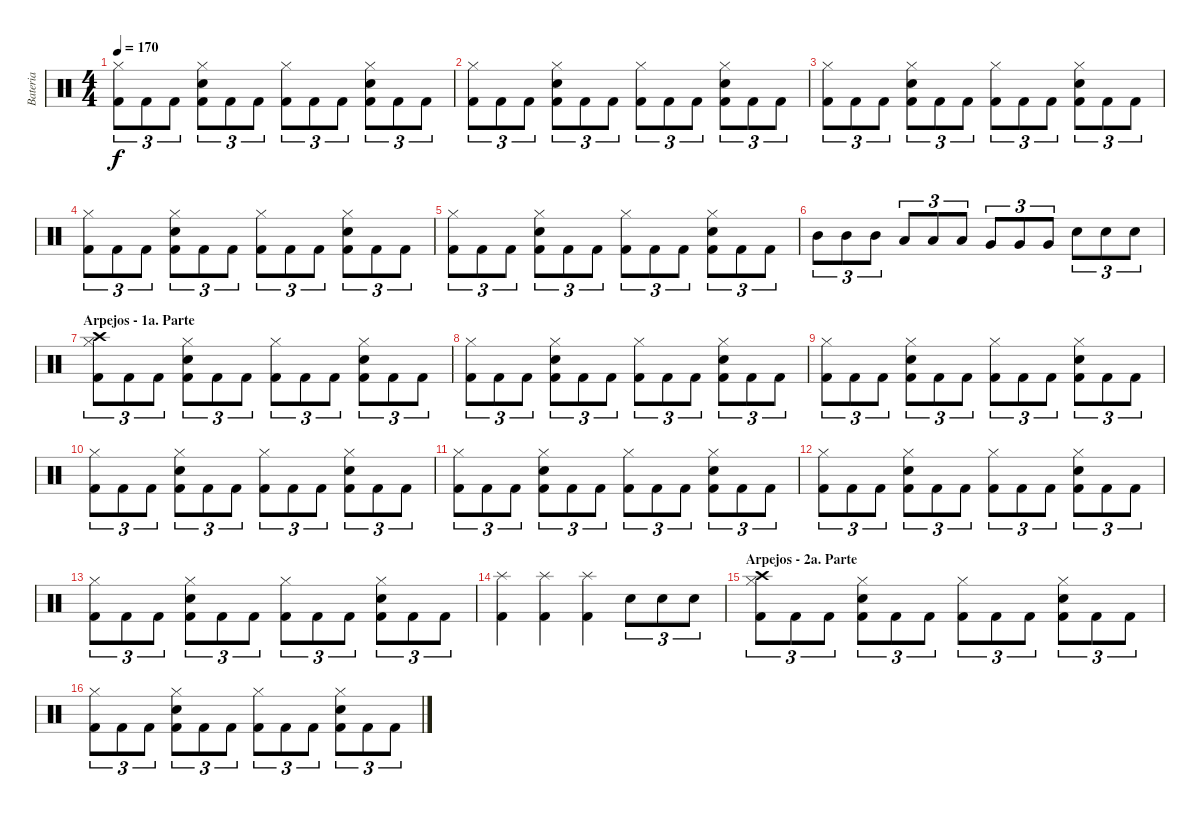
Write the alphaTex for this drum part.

\track ("Bateria" "Bateria") {instrument percussion}
\staff {score}
\articulation defaults
\ts (4 4)
\tempo 170
\clef neutral
\ks c
("Hi-Hat (closed)" "Kick (hit) 2").8{tu (3 2) dy f} "Kick (hit) 2".8{tu (3 2)} "Kick (hit) 2".8{tu (3 2)} ("Hi-Hat (closed)" "Snare (hit) 2" "Kick (hit) 2").8{tu (3 2)} "Kick (hit) 2".8{tu (3 2)} "Kick (hit) 2".8{tu (3 2)} ("Hi-Hat (closed)" "Kick (hit) 2").8{tu (3 2)} "Kick (hit) 2".8{tu (3 2)} "Kick (hit) 2".8{tu (3 2)} ("Hi-Hat (closed)" "Snare (hit) 2" "Kick (hit) 2").8{tu (3 2)} "Kick (hit) 2".8{tu (3 2)} "Kick (hit) 2".8{tu (3 2)} |
("Hi-Hat (closed)" "Kick (hit) 2").8{tu (3 2)} "Kick (hit) 2".8{tu (3 2)} "Kick (hit) 2".8{tu (3 2)} ("Hi-Hat (closed)" "Snare (hit) 2" "Kick (hit) 2").8{tu (3 2)} "Kick (hit) 2".8{tu (3 2)} "Kick (hit) 2".8{tu (3 2)} ("Hi-Hat (closed)" "Kick (hit) 2").8{tu (3 2)} "Kick (hit) 2".8{tu (3 2)} "Kick (hit) 2".8{tu (3 2)} ("Hi-Hat (closed)" "Snare (hit) 2" "Kick (hit) 2").8{tu (3 2)} "Kick (hit) 2".8{tu (3 2)} "Kick (hit) 2".8{tu (3 2)} |
("Hi-Hat (closed)" "Kick (hit) 2").8{tu (3 2)} "Kick (hit) 2".8{tu (3 2)} "Kick (hit) 2".8{tu (3 2)} ("Hi-Hat (closed)" "Snare (hit) 2" "Kick (hit) 2").8{tu (3 2)} "Kick (hit) 2".8{tu (3 2)} "Kick (hit) 2".8{tu (3 2)} ("Hi-Hat (closed)" "Kick (hit) 2").8{tu (3 2)} "Kick (hit) 2".8{tu (3 2)} "Kick (hit) 2".8{tu (3 2)} ("Hi-Hat (closed)" "Snare (hit) 2" "Kick (hit) 2").8{tu (3 2)} "Kick (hit) 2".8{tu (3 2)} "Kick (hit) 2".8{tu (3 2)} |
("Hi-Hat (closed)" "Kick (hit) 2").8{tu (3 2)} "Kick (hit) 2".8{tu (3 2)} "Kick (hit) 2".8{tu (3 2)} ("Hi-Hat (closed)" "Snare (hit) 2" "Kick (hit) 2").8{tu (3 2)} "Kick (hit) 2".8{tu (3 2)} "Kick (hit) 2".8{tu (3 2)} ("Hi-Hat (closed)" "Kick (hit) 2").8{tu (3 2)} "Kick (hit) 2".8{tu (3 2)} "Kick (hit) 2".8{tu (3 2)} ("Hi-Hat (closed)" "Snare (hit) 2" "Kick (hit) 2").8{tu (3 2)} "Kick (hit) 2".8{tu (3 2)} "Kick (hit) 2".8{tu (3 2)} |
("Hi-Hat (closed)" "Kick (hit) 2").8{tu (3 2)} "Kick (hit) 2".8{tu (3 2)} "Kick (hit) 2".8{tu (3 2)} ("Hi-Hat (closed)" "Snare (hit) 2" "Kick (hit) 2").8{tu (3 2)} "Kick (hit) 2".8{tu (3 2)} "Kick (hit) 2".8{tu (3 2)} ("Hi-Hat (closed)" "Kick (hit) 2").8{tu (3 2)} "Kick (hit) 2".8{tu (3 2)} "Kick (hit) 2".8{tu (3 2)} ("Hi-Hat (closed)" "Snare (hit) 2" "Kick (hit) 2").8{tu (3 2)} "Kick (hit) 2".8{tu (3 2)} "Kick (hit) 2".8{tu (3 2)} |
"Mid Tom (hit)".8{tu (3 2)} "Mid Tom (hit)".8{tu (3 2)} "Mid Tom (hit)".8{tu (3 2)} "Low Tom (hit)".8{tu (3 2)} "Low Tom (hit)".8{tu (3 2)} "Low Tom (hit)".8{tu (3 2)} "Very Low Tom (hit)".8{tu (3 2)} "Very Low Tom (hit)".8{tu (3 2)} "Very Low Tom (hit)".8{tu (3 2)} "Snare (hit) 2".8{tu (3 2)} "Snare (hit) 2".8{tu (3 2)} "Snare (hit) 2".8{tu (3 2)} |
\section ("" "Arpejos - 1a. Parte")
("Hi-Hat (closed)" "Kick (hit) 2" "Crash high (hit)").8{tu (3 2)} "Kick (hit) 2".8{tu (3 2)} "Kick (hit) 2".8{tu (3 2)} ("Hi-Hat (closed)" "Snare (hit) 2" "Kick (hit) 2").8{tu (3 2)} "Kick (hit) 2".8{tu (3 2)} "Kick (hit) 2".8{tu (3 2)} ("Hi-Hat (closed)" "Kick (hit) 2").8{tu (3 2)} "Kick (hit) 2".8{tu (3 2)} "Kick (hit) 2".8{tu (3 2)} ("Hi-Hat (closed)" "Snare (hit) 2" "Kick (hit) 2").8{tu (3 2)} "Kick (hit) 2".8{tu (3 2)} "Kick (hit) 2".8{tu (3 2)} |
("Hi-Hat (closed)" "Kick (hit) 2").8{tu (3 2)} "Kick (hit) 2".8{tu (3 2)} "Kick (hit) 2".8{tu (3 2)} ("Hi-Hat (closed)" "Snare (hit) 2" "Kick (hit) 2").8{tu (3 2)} "Kick (hit) 2".8{tu (3 2)} "Kick (hit) 2".8{tu (3 2)} ("Hi-Hat (closed)" "Kick (hit) 2").8{tu (3 2)} "Kick (hit) 2".8{tu (3 2)} "Kick (hit) 2".8{tu (3 2)} ("Hi-Hat (closed)" "Snare (hit) 2" "Kick (hit) 2").8{tu (3 2)} "Kick (hit) 2".8{tu (3 2)} "Kick (hit) 2".8{tu (3 2)} |
("Hi-Hat (closed)" "Kick (hit) 2").8{tu (3 2)} "Kick (hit) 2".8{tu (3 2)} "Kick (hit) 2".8{tu (3 2)} ("Hi-Hat (closed)" "Snare (hit) 2" "Kick (hit) 2").8{tu (3 2)} "Kick (hit) 2".8{tu (3 2)} "Kick (hit) 2".8{tu (3 2)} ("Hi-Hat (closed)" "Kick (hit) 2").8{tu (3 2)} "Kick (hit) 2".8{tu (3 2)} "Kick (hit) 2".8{tu (3 2)} ("Hi-Hat (closed)" "Snare (hit) 2" "Kick (hit) 2").8{tu (3 2)} "Kick (hit) 2".8{tu (3 2)} "Kick (hit) 2".8{tu (3 2)} |
("Hi-Hat (closed)" "Kick (hit) 2").8{tu (3 2)} "Kick (hit) 2".8{tu (3 2)} "Kick (hit) 2".8{tu (3 2)} ("Hi-Hat (closed)" "Snare (hit) 2" "Kick (hit) 2").8{tu (3 2)} "Kick (hit) 2".8{tu (3 2)} "Kick (hit) 2".8{tu (3 2)} ("Hi-Hat (closed)" "Kick (hit) 2").8{tu (3 2)} "Kick (hit) 2".8{tu (3 2)} "Kick (hit) 2".8{tu (3 2)} ("Hi-Hat (closed)" "Snare (hit) 2" "Kick (hit) 2").8{tu (3 2)} "Kick (hit) 2".8{tu (3 2)} "Kick (hit) 2".8{tu (3 2)} |
("Hi-Hat (closed)" "Kick (hit) 2").8{tu (3 2)} "Kick (hit) 2".8{tu (3 2)} "Kick (hit) 2".8{tu (3 2)} ("Hi-Hat (closed)" "Snare (hit) 2" "Kick (hit) 2").8{tu (3 2)} "Kick (hit) 2".8{tu (3 2)} "Kick (hit) 2".8{tu (3 2)} ("Hi-Hat (closed)" "Kick (hit) 2").8{tu (3 2)} "Kick (hit) 2".8{tu (3 2)} "Kick (hit) 2".8{tu (3 2)} ("Hi-Hat (closed)" "Snare (hit) 2" "Kick (hit) 2").8{tu (3 2)} "Kick (hit) 2".8{tu (3 2)} "Kick (hit) 2".8{tu (3 2)} |
("Hi-Hat (closed)" "Kick (hit) 2").8{tu (3 2)} "Kick (hit) 2".8{tu (3 2)} "Kick (hit) 2".8{tu (3 2)} ("Hi-Hat (closed)" "Snare (hit) 2" "Kick (hit) 2").8{tu (3 2)} "Kick (hit) 2".8{tu (3 2)} "Kick (hit) 2".8{tu (3 2)} ("Hi-Hat (closed)" "Kick (hit) 2").8{tu (3 2)} "Kick (hit) 2".8{tu (3 2)} "Kick (hit) 2".8{tu (3 2)} ("Hi-Hat (closed)" "Snare (hit) 2" "Kick (hit) 2").8{tu (3 2)} "Kick (hit) 2".8{tu (3 2)} "Kick (hit) 2".8{tu (3 2)} |
("Hi-Hat (closed)" "Kick (hit) 2").8{tu (3 2)} "Kick (hit) 2".8{tu (3 2)} "Kick (hit) 2".8{tu (3 2)} ("Hi-Hat (closed)" "Snare (hit) 2" "Kick (hit) 2").8{tu (3 2)} "Kick (hit) 2".8{tu (3 2)} "Kick (hit) 2".8{tu (3 2)} ("Hi-Hat (closed)" "Kick (hit) 2").8{tu (3 2)} "Kick (hit) 2".8{tu (3 2)} "Kick (hit) 2".8{tu (3 2)} ("Hi-Hat (closed)" "Snare (hit) 2" "Kick (hit) 2").8{tu (3 2)} "Kick (hit) 2".8{tu (3 2)} "Kick (hit) 2".8{tu (3 2)} |
("Kick (hit) 2" "Splash (hit)").4 ("Kick (hit) 2" "Splash (hit)").4 ("Kick (hit) 2" "Splash (hit)").4 "Snare (hit) 2".8{tu (3 2)} "Snare (hit) 2".8{tu (3 2)} "Snare (hit) 2".8{tu (3 2)} |
\section ("" "Arpejos - 2a. Parte")
("Hi-Hat (closed)" "Kick (hit) 2" "Crash high (hit)").8{tu (3 2)} "Kick (hit) 2".8{tu (3 2)} "Kick (hit) 2".8{tu (3 2)} ("Hi-Hat (closed)" "Snare (hit) 2" "Kick (hit) 2").8{tu (3 2)} "Kick (hit) 2".8{tu (3 2)} "Kick (hit) 2".8{tu (3 2)} ("Hi-Hat (closed)" "Kick (hit) 2").8{tu (3 2)} "Kick (hit) 2".8{tu (3 2)} "Kick (hit) 2".8{tu (3 2)} ("Hi-Hat (closed)" "Snare (hit) 2" "Kick (hit) 2").8{tu (3 2)} "Kick (hit) 2".8{tu (3 2)} "Kick (hit) 2".8{tu (3 2)} |
("Hi-Hat (closed)" "Kick (hit) 2").8{tu (3 2)} "Kick (hit) 2".8{tu (3 2)} "Kick (hit) 2".8{tu (3 2)} ("Hi-Hat (closed)" "Snare (hit) 2" "Kick (hit) 2").8{tu (3 2)} "Kick (hit) 2".8{tu (3 2)} "Kick (hit) 2".8{tu (3 2)} ("Hi-Hat (closed)" "Kick (hit) 2").8{tu (3 2)} "Kick (hit) 2".8{tu (3 2)} "Kick (hit) 2".8{tu (3 2)} ("Hi-Hat (closed)" "Snare (hit) 2" "Kick (hit) 2").8{tu (3 2)} "Kick (hit) 2".8{tu (3 2)} "Kick (hit) 2".8{tu (3 2)}
